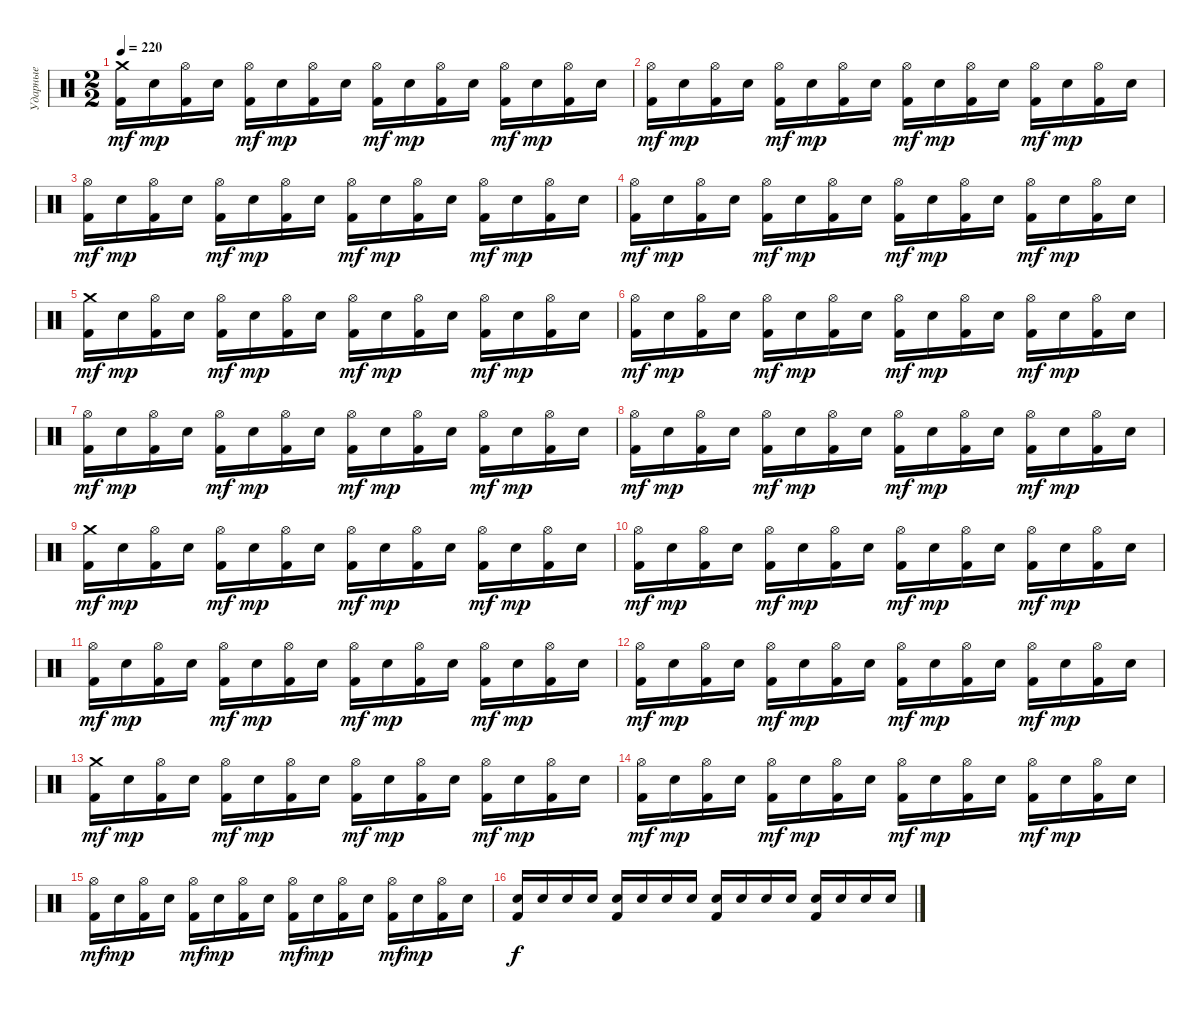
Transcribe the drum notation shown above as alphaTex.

\track ("Ударные" "Ударные") {instrument percussion}
\staff {score}
\articulation defaults
\ts (2 2)
\tempo 220
\clef neutral
\ks c
("Crash medium (hit)" "Kick (hit) 2").16{dy mf} "Electric Snare (hit)".16{dy mp} ("Hi-Hat (open)" "Kick (hit) 2").16 "Electric Snare (hit)".16 ("Hi-Hat (open)" "Kick (hit) 2").16{dy mf} "Electric Snare (hit)".16{dy mp} ("Hi-Hat (open)" "Kick (hit) 2").16 "Electric Snare (hit)".16 ("Hi-Hat (open)" "Kick (hit) 2").16{dy mf} "Electric Snare (hit)".16{dy mp} ("Hi-Hat (open)" "Kick (hit) 2").16 "Electric Snare (hit)".16 ("Hi-Hat (open)" "Kick (hit) 2").16{dy mf} "Electric Snare (hit)".16{dy mp} ("Hi-Hat (open)" "Kick (hit) 2").16 "Electric Snare (hit)".16 |
("Hi-Hat (open)" "Kick (hit) 2").16{dy mf} "Electric Snare (hit)".16{dy mp} ("Hi-Hat (open)" "Kick (hit) 2").16 "Electric Snare (hit)".16 ("Hi-Hat (open)" "Kick (hit) 2").16{dy mf} "Electric Snare (hit)".16{dy mp} ("Hi-Hat (open)" "Kick (hit) 2").16 "Electric Snare (hit)".16 ("Hi-Hat (open)" "Kick (hit) 2").16{dy mf} "Electric Snare (hit)".16{dy mp} ("Hi-Hat (open)" "Kick (hit) 2").16 "Electric Snare (hit)".16 ("Hi-Hat (open)" "Kick (hit) 2").16{dy mf} "Electric Snare (hit)".16{dy mp} ("Hi-Hat (open)" "Kick (hit) 2").16 "Electric Snare (hit)".16 |
("Hi-Hat (open)" "Kick (hit) 2").16{dy mf} "Electric Snare (hit)".16{dy mp} ("Hi-Hat (open)" "Kick (hit) 2").16 "Electric Snare (hit)".16 ("Hi-Hat (open)" "Kick (hit) 2").16{dy mf} "Electric Snare (hit)".16{dy mp} ("Hi-Hat (open)" "Kick (hit) 2").16 "Electric Snare (hit)".16 ("Hi-Hat (open)" "Kick (hit) 2").16{dy mf} "Electric Snare (hit)".16{dy mp} ("Hi-Hat (open)" "Kick (hit) 2").16 "Electric Snare (hit)".16 ("Hi-Hat (open)" "Kick (hit) 2").16{dy mf} "Electric Snare (hit)".16{dy mp} ("Hi-Hat (open)" "Kick (hit) 2").16 "Electric Snare (hit)".16 |
("Hi-Hat (open)" "Kick (hit) 2").16{dy mf} "Electric Snare (hit)".16{dy mp} ("Hi-Hat (open)" "Kick (hit) 2").16 "Electric Snare (hit)".16 ("Hi-Hat (open)" "Kick (hit) 2").16{dy mf} "Electric Snare (hit)".16{dy mp} ("Hi-Hat (open)" "Kick (hit) 2").16 "Electric Snare (hit)".16 ("Hi-Hat (open)" "Kick (hit) 2").16{dy mf} "Electric Snare (hit)".16{dy mp} ("Hi-Hat (open)" "Kick (hit) 2").16 "Electric Snare (hit)".16 ("Hi-Hat (open)" "Kick (hit) 2").16{dy mf} "Electric Snare (hit)".16{dy mp} ("Hi-Hat (open)" "Kick (hit) 2").16 "Electric Snare (hit)".16 |
("Crash medium (hit)" "Kick (hit) 2").16{dy mf} "Electric Snare (hit)".16{dy mp} ("Hi-Hat (open)" "Kick (hit) 2").16 "Electric Snare (hit)".16 ("Hi-Hat (open)" "Kick (hit) 2").16{dy mf} "Electric Snare (hit)".16{dy mp} ("Hi-Hat (open)" "Kick (hit) 2").16 "Electric Snare (hit)".16 ("Hi-Hat (open)" "Kick (hit) 2").16{dy mf} "Electric Snare (hit)".16{dy mp} ("Hi-Hat (open)" "Kick (hit) 2").16 "Electric Snare (hit)".16 ("Hi-Hat (open)" "Kick (hit) 2").16{dy mf} "Electric Snare (hit)".16{dy mp} ("Hi-Hat (open)" "Kick (hit) 2").16 "Electric Snare (hit)".16 |
("Hi-Hat (open)" "Kick (hit) 2").16{dy mf} "Electric Snare (hit)".16{dy mp} ("Hi-Hat (open)" "Kick (hit) 2").16 "Electric Snare (hit)".16 ("Hi-Hat (open)" "Kick (hit) 2").16{dy mf} "Electric Snare (hit)".16{dy mp} ("Hi-Hat (open)" "Kick (hit) 2").16 "Electric Snare (hit)".16 ("Hi-Hat (open)" "Kick (hit) 2").16{dy mf} "Electric Snare (hit)".16{dy mp} ("Hi-Hat (open)" "Kick (hit) 2").16 "Electric Snare (hit)".16 ("Hi-Hat (open)" "Kick (hit) 2").16{dy mf} "Electric Snare (hit)".16{dy mp} ("Hi-Hat (open)" "Kick (hit) 2").16 "Electric Snare (hit)".16 |
("Hi-Hat (open)" "Kick (hit) 2").16{dy mf} "Electric Snare (hit)".16{dy mp} ("Hi-Hat (open)" "Kick (hit) 2").16 "Electric Snare (hit)".16 ("Hi-Hat (open)" "Kick (hit) 2").16{dy mf} "Electric Snare (hit)".16{dy mp} ("Hi-Hat (open)" "Kick (hit) 2").16 "Electric Snare (hit)".16 ("Hi-Hat (open)" "Kick (hit) 2").16{dy mf} "Electric Snare (hit)".16{dy mp} ("Hi-Hat (open)" "Kick (hit) 2").16 "Electric Snare (hit)".16 ("Hi-Hat (open)" "Kick (hit) 2").16{dy mf} "Electric Snare (hit)".16{dy mp} ("Hi-Hat (open)" "Kick (hit) 2").16 "Electric Snare (hit)".16 |
("Hi-Hat (open)" "Kick (hit) 2").16{dy mf} "Electric Snare (hit)".16{dy mp} ("Hi-Hat (open)" "Kick (hit) 2").16 "Electric Snare (hit)".16 ("Hi-Hat (open)" "Kick (hit) 2").16{dy mf} "Electric Snare (hit)".16{dy mp} ("Hi-Hat (open)" "Kick (hit) 2").16 "Electric Snare (hit)".16 ("Hi-Hat (open)" "Kick (hit) 2").16{dy mf} "Electric Snare (hit)".16{dy mp} ("Hi-Hat (open)" "Kick (hit) 2").16 "Electric Snare (hit)".16 ("Hi-Hat (open)" "Kick (hit) 2").16{dy mf} "Electric Snare (hit)".16{dy mp} ("Hi-Hat (open)" "Kick (hit) 2").16 "Electric Snare (hit)".16 |
("Crash medium (hit)" "Kick (hit) 2").16{dy mf} "Electric Snare (hit)".16{dy mp} ("Hi-Hat (open)" "Kick (hit) 2").16 "Electric Snare (hit)".16 ("Hi-Hat (open)" "Kick (hit) 2").16{dy mf} "Electric Snare (hit)".16{dy mp} ("Hi-Hat (open)" "Kick (hit) 2").16 "Electric Snare (hit)".16 ("Hi-Hat (open)" "Kick (hit) 2").16{dy mf} "Electric Snare (hit)".16{dy mp} ("Hi-Hat (open)" "Kick (hit) 2").16 "Electric Snare (hit)".16 ("Hi-Hat (open)" "Kick (hit) 2").16{dy mf} "Electric Snare (hit)".16{dy mp} ("Hi-Hat (open)" "Kick (hit) 2").16 "Electric Snare (hit)".16 |
("Hi-Hat (open)" "Kick (hit) 2").16{dy mf} "Electric Snare (hit)".16{dy mp} ("Hi-Hat (open)" "Kick (hit) 2").16 "Electric Snare (hit)".16 ("Hi-Hat (open)" "Kick (hit) 2").16{dy mf} "Electric Snare (hit)".16{dy mp} ("Hi-Hat (open)" "Kick (hit) 2").16 "Electric Snare (hit)".16 ("Hi-Hat (open)" "Kick (hit) 2").16{dy mf} "Electric Snare (hit)".16{dy mp} ("Hi-Hat (open)" "Kick (hit) 2").16 "Electric Snare (hit)".16 ("Hi-Hat (open)" "Kick (hit) 2").16{dy mf} "Electric Snare (hit)".16{dy mp} ("Hi-Hat (open)" "Kick (hit) 2").16 "Electric Snare (hit)".16 |
("Hi-Hat (open)" "Kick (hit) 2").16{dy mf} "Electric Snare (hit)".16{dy mp} ("Hi-Hat (open)" "Kick (hit) 2").16 "Electric Snare (hit)".16 ("Hi-Hat (open)" "Kick (hit) 2").16{dy mf} "Electric Snare (hit)".16{dy mp} ("Hi-Hat (open)" "Kick (hit) 2").16 "Electric Snare (hit)".16 ("Hi-Hat (open)" "Kick (hit) 2").16{dy mf} "Electric Snare (hit)".16{dy mp} ("Hi-Hat (open)" "Kick (hit) 2").16 "Electric Snare (hit)".16 ("Hi-Hat (open)" "Kick (hit) 2").16{dy mf} "Electric Snare (hit)".16{dy mp} ("Hi-Hat (open)" "Kick (hit) 2").16 "Electric Snare (hit)".16 |
("Hi-Hat (open)" "Kick (hit) 2").16{dy mf} "Electric Snare (hit)".16{dy mp} ("Hi-Hat (open)" "Kick (hit) 2").16 "Electric Snare (hit)".16 ("Hi-Hat (open)" "Kick (hit) 2").16{dy mf} "Electric Snare (hit)".16{dy mp} ("Hi-Hat (open)" "Kick (hit) 2").16 "Electric Snare (hit)".16 ("Hi-Hat (open)" "Kick (hit) 2").16{dy mf} "Electric Snare (hit)".16{dy mp} ("Hi-Hat (open)" "Kick (hit) 2").16 "Electric Snare (hit)".16 ("Hi-Hat (open)" "Kick (hit) 2").16{dy mf} "Electric Snare (hit)".16{dy mp} ("Hi-Hat (open)" "Kick (hit) 2").16 "Electric Snare (hit)".16 |
("Crash medium (hit)" "Kick (hit) 2").16{dy mf} "Electric Snare (hit)".16{dy mp} ("Hi-Hat (open)" "Kick (hit) 2").16 "Electric Snare (hit)".16 ("Hi-Hat (open)" "Kick (hit) 2").16{dy mf} "Electric Snare (hit)".16{dy mp} ("Hi-Hat (open)" "Kick (hit) 2").16 "Electric Snare (hit)".16 ("Hi-Hat (open)" "Kick (hit) 2").16{dy mf} "Electric Snare (hit)".16{dy mp} ("Hi-Hat (open)" "Kick (hit) 2").16 "Electric Snare (hit)".16 ("Hi-Hat (open)" "Kick (hit) 2").16{dy mf} "Electric Snare (hit)".16{dy mp} ("Hi-Hat (open)" "Kick (hit) 2").16 "Electric Snare (hit)".16 |
("Hi-Hat (open)" "Kick (hit) 2").16{dy mf} "Electric Snare (hit)".16{dy mp} ("Hi-Hat (open)" "Kick (hit) 2").16 "Electric Snare (hit)".16 ("Hi-Hat (open)" "Kick (hit) 2").16{dy mf} "Electric Snare (hit)".16{dy mp} ("Hi-Hat (open)" "Kick (hit) 2").16 "Electric Snare (hit)".16 ("Hi-Hat (open)" "Kick (hit) 2").16{dy mf} "Electric Snare (hit)".16{dy mp} ("Hi-Hat (open)" "Kick (hit) 2").16 "Electric Snare (hit)".16 ("Hi-Hat (open)" "Kick (hit) 2").16{dy mf} "Electric Snare (hit)".16{dy mp} ("Hi-Hat (open)" "Kick (hit) 2").16 "Electric Snare (hit)".16 |
("Hi-Hat (open)" "Kick (hit) 2").16{dy mf} "Electric Snare (hit)".16{dy mp} ("Hi-Hat (open)" "Kick (hit) 2").16 "Electric Snare (hit)".16 ("Hi-Hat (open)" "Kick (hit) 2").16{dy mf} "Electric Snare (hit)".16{dy mp} ("Hi-Hat (open)" "Kick (hit) 2").16 "Electric Snare (hit)".16 ("Hi-Hat (open)" "Kick (hit) 2").16{dy mf} "Electric Snare (hit)".16{dy mp} ("Hi-Hat (open)" "Kick (hit) 2").16 "Electric Snare (hit)".16 ("Hi-Hat (open)" "Kick (hit) 2").16{dy mf} "Electric Snare (hit)".16{dy mp} ("Hi-Hat (open)" "Kick (hit) 2").16 "Electric Snare (hit)".16 |
("Electric Snare (hit)" "Kick (hit) 2").16{dy f} "Electric Snare (hit)".16 "Electric Snare (hit)".16 "Electric Snare (hit)".16 ("Electric Snare (hit)" "Kick (hit) 2").16 "Electric Snare (hit)".16 "Electric Snare (hit)".16 "Electric Snare (hit)".16 ("Electric Snare (hit)" "Kick (hit) 2").16 "Electric Snare (hit)".16 "Electric Snare (hit)".16 "Electric Snare (hit)".16 ("Electric Snare (hit)" "Kick (hit) 2").16 "Electric Snare (hit)".16 "Electric Snare (hit)".16 "Electric Snare (hit)".16
